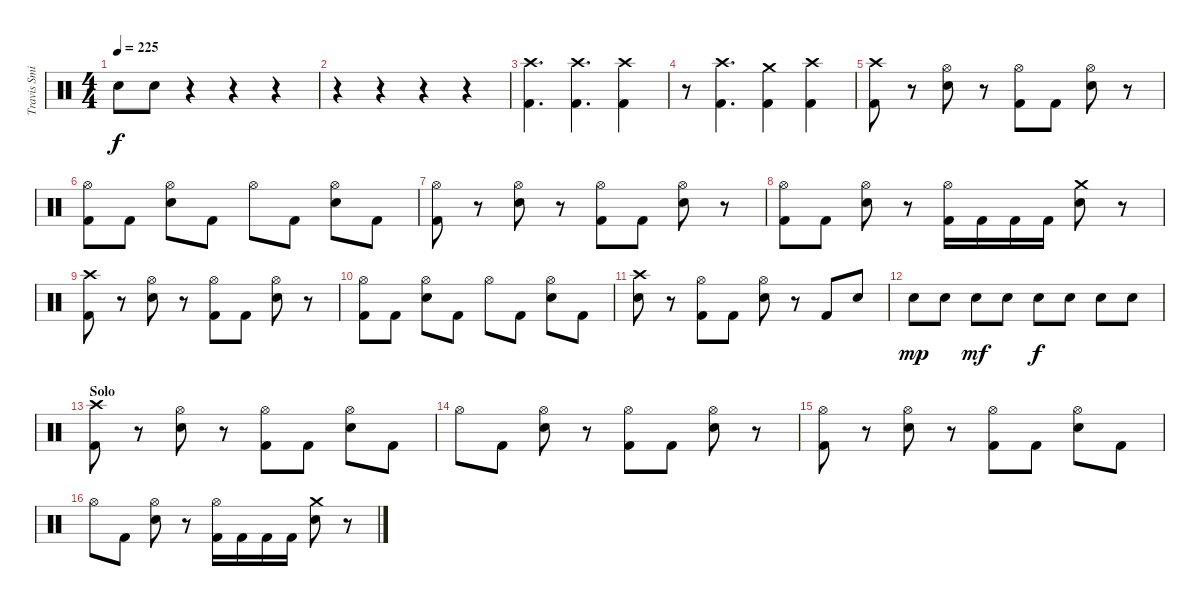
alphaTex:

\track ("Travis Smith" "Travis Smi") {instrument percussion}
\staff {score}
\articulation defaults
\ts (4 4)
\tempo 225
\clef neutral
\ks c "Electric Snare (hit)".8{dy f} "Electric Snare (hit)".8
r.4 r.4 r.4 |
r.4 r.4 r.4 r.4 |
("Crash high (hit)" "Kick (hit) 2").4{d} ("Crash high (hit)" "Kick (hit) 2").4{d} ("Crash high (hit)" "Kick (hit) 2").4 |
r.8 ("Crash high (hit)" "Kick (hit) 2").4{d} ("Crash medium (hit)" "Kick (hit) 2").4 ("Crash high (hit)" "Kick (hit) 2").4 |
("Crash high (hit)" "Kick (hit) 2").8 r.8 ("Hi-Hat (open)" "Electric Snare (hit)").8 r.8 ("Hi-Hat (open)" "Kick (hit) 2").8 "Kick (hit) 2".8 ("Hi-Hat (open)" "Electric Snare (hit)").8 r.8 |
("Hi-Hat (open)" "Kick (hit) 2").8 "Kick (hit) 2".8 ("Hi-Hat (open)" "Electric Snare (hit)").8 "Kick (hit) 2".8 "Hi-Hat (open)".8 "Kick (hit) 2".8 ("Hi-Hat (open)" "Electric Snare (hit)").8 "Kick (hit) 2".8 |
("Hi-Hat (open)" "Kick (hit) 2").8 r.8 ("Hi-Hat (open)" "Electric Snare (hit)").8 r.8 ("Hi-Hat (open)" "Kick (hit) 2").8 "Kick (hit) 2".8 ("Hi-Hat (open)" "Electric Snare (hit)").8 r.8 |
("Hi-Hat (open)" "Kick (hit) 2").8 "Kick (hit) 2".8 ("Hi-Hat (open)" "Electric Snare (hit)").8 r.8 ("Hi-Hat (open)" "Kick (hit) 2").16 "Kick (hit) 2".16 "Kick (hit) 2".16 "Kick (hit) 2".16 ("Crash medium (hit)" "Electric Snare (hit)").8 r.8 |
("Crash high (hit)" "Kick (hit) 2").8 r.8 ("Hi-Hat (open)" "Electric Snare (hit)").8 r.8 ("Hi-Hat (open)" "Kick (hit) 2").8 "Kick (hit) 2".8 ("Hi-Hat (open)" "Electric Snare (hit)").8 r.8 |
("Hi-Hat (open)" "Kick (hit) 2").8 "Kick (hit) 2".8 ("Hi-Hat (open)" "Electric Snare (hit)").8 "Kick (hit) 2".8 "Hi-Hat (open)".8 "Kick (hit) 2".8 ("Hi-Hat (open)" "Electric Snare (hit)").8 "Kick (hit) 2".8 |
("Crash high (hit)" "Electric Snare (hit)").8 r.8 ("Hi-Hat (open)" "Kick (hit) 2").8 "Kick (hit) 2".8 ("Hi-Hat (open)" "Electric Snare (hit)").8 r.8 "Kick (hit) 2".8 "Electric Snare (hit)".8 |
"Electric Snare (hit)".8{dy mp} "Electric Snare (hit)".8 "Electric Snare (hit)".8{dy mf} "Electric Snare (hit)".8 "Electric Snare (hit)".8{dy f} "Electric Snare (hit)".8 "Electric Snare (hit)".8 "Electric Snare (hit)".8 |
\section ("" "Solo")
("Crash high (hit)" "Kick (hit) 2").8 r.8 ("Hi-Hat (open)" "Electric Snare (hit)").8 r.8 ("Hi-Hat (open)" "Kick (hit) 2").8 "Kick (hit) 2".8 ("Hi-Hat (open)" "Electric Snare (hit)").8 "Kick (hit) 2".8 |
"Hi-Hat (open)".8 "Kick (hit) 2".8 ("Hi-Hat (open)" "Electric Snare (hit)").8 r.8 ("Hi-Hat (open)" "Kick (hit) 2").8 "Kick (hit) 2".8 ("Hi-Hat (open)" "Electric Snare (hit)").8 r.8 |
("Hi-Hat (open)" "Kick (hit) 2").8 r.8 ("Hi-Hat (open)" "Electric Snare (hit)").8 r.8 ("Hi-Hat (open)" "Kick (hit) 2").8 "Kick (hit) 2".8 ("Hi-Hat (open)" "Electric Snare (hit)").8 "Kick (hit) 2".8 |
"Hi-Hat (open)".8 "Kick (hit) 2".8 ("Hi-Hat (open)" "Electric Snare (hit)").8 r.8 ("Hi-Hat (open)" "Kick (hit) 2").16 "Kick (hit) 2".16 "Kick (hit) 2".16 "Kick (hit) 2".16 ("Crash medium (hit)" "Electric Snare (hit)").8 r.8
